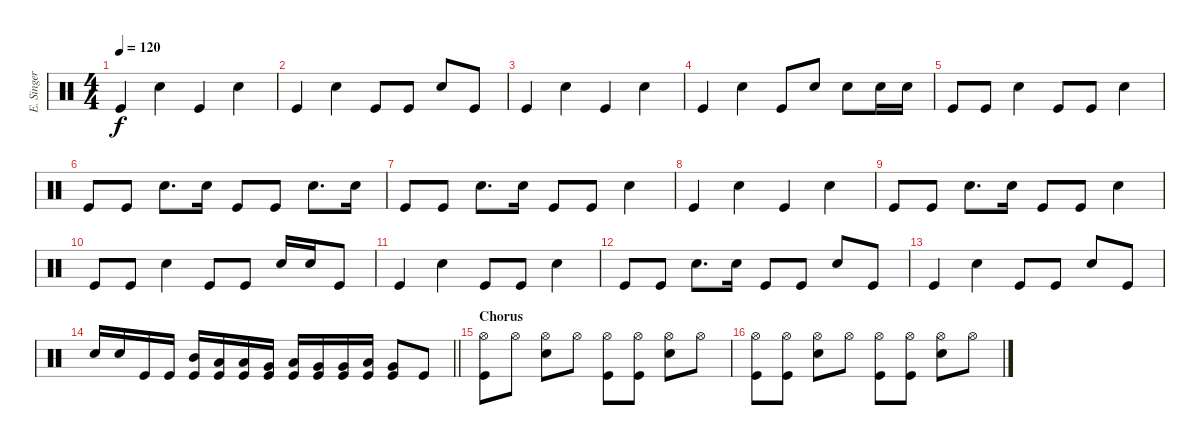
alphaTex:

\track ("E. Singer - Drums" "E. Singer ") {instrument percussion}
\staff {score}
\articulation defaults
\ts (4 4)
\tempo 120
\clef neutral
\ks c "Kick (hit)".4{dy f} "Snare (hit) 2".4 "Kick (hit)".4 "Snare (hit) 2".4
|
"Kick (hit)".4 "Snare (hit) 2".4 "Kick (hit)".8 "Kick (hit)".8 "Snare (hit) 2".8 "Kick (hit)".8 |
"Kick (hit)".4 "Snare (hit) 2".4 "Kick (hit)".4 "Snare (hit) 2".4 |
"Kick (hit)".4 "Snare (hit) 2".4 "Kick (hit)".8 "Snare (hit) 2".8 "Snare (hit) 2".8 "Snare (hit) 2".16 "Snare (hit) 2".16 |
"Kick (hit)".8 "Kick (hit)".8 "Snare (hit) 2".4 "Kick (hit)".8 "Kick (hit)".8 "Snare (hit) 2".4 |
"Kick (hit)".8 "Kick (hit)".8 "Snare (hit) 2".8{d} "Snare (hit) 2".16 "Kick (hit)".8 "Kick (hit)".8 "Snare (hit) 2".8{d} "Snare (hit) 2".16 |
"Kick (hit)".8 "Kick (hit)".8 "Snare (hit) 2".8{d} "Snare (hit) 2".16 "Kick (hit)".8 "Kick (hit)".8 "Snare (hit) 2".4 |
"Kick (hit)".4 "Snare (hit) 2".4 "Kick (hit)".4 "Snare (hit) 2".4 |
"Kick (hit)".8 "Kick (hit)".8 "Snare (hit) 2".8{d} "Snare (hit) 2".16 "Kick (hit)".8 "Kick (hit)".8 "Snare (hit) 2".4 |
"Kick (hit)".8 "Kick (hit)".8 "Snare (hit) 2".4 "Kick (hit)".8 "Kick (hit)".8 "Snare (hit) 2".16 "Snare (hit) 2".16 "Kick (hit)".8 |
"Kick (hit)".4 "Snare (hit) 2".4 "Kick (hit)".8 "Kick (hit)".8 "Snare (hit) 2".4 |
"Kick (hit)".8 "Kick (hit)".8 "Snare (hit) 2".8{d} "Snare (hit) 2".16 "Kick (hit)".8 "Kick (hit)".8 "Snare (hit) 2".8 "Kick (hit)".8 |
"Kick (hit)".4 "Snare (hit) 2".4 "Kick (hit)".8 "Kick (hit)".8 "Snare (hit) 2".8 "Kick (hit)".8 |
\barLineRight lightlight "Snare (hit) 2".16 "Snare (hit) 2".16 "Kick (hit)".16 "Kick (hit)".16
("Kick (hit)" "Mid Tom (hit)").16 ("Kick (hit)" "Low Tom (hit)").16 ("Kick (hit)" "Low Tom (hit)").16 ("Kick (hit)" "Very Low Tom (hit)").16 ("Kick (hit)" "Low Tom (hit)").16 ("Kick (hit)" "Very Low Tom (hit)").16 ("Kick (hit)" "Very Low Tom (hit)").16 ("Kick (hit)" "Low Floor Tom (hit)").16 ("Kick (hit)" "Very Low Tom (hit)").8 "Kick (hit)".8 |
\section ("" "Chorus")
("Kick (hit)" "Hi-Hat (open)").8 "Hi-Hat (open)".8 ("Snare (hit) 2" "Hi-Hat (open)").8 "Hi-Hat (open)".8 ("Kick (hit)" "Hi-Hat (open)").8 ("Kick (hit)" "Hi-Hat (open)").8 ("Snare (hit) 2" "Hi-Hat (open)").8 "Hi-Hat (open)".8 |
("Kick (hit)" "Hi-Hat (open)").8 ("Kick (hit)" "Hi-Hat (open)").8 ("Snare (hit) 2" "Hi-Hat (open)").8 "Hi-Hat (open)".8 ("Kick (hit)" "Hi-Hat (open)").8 ("Kick (hit)" "Hi-Hat (open)").8 ("Snare (hit) 2" "Hi-Hat (open)").8 "Hi-Hat (open)".8
